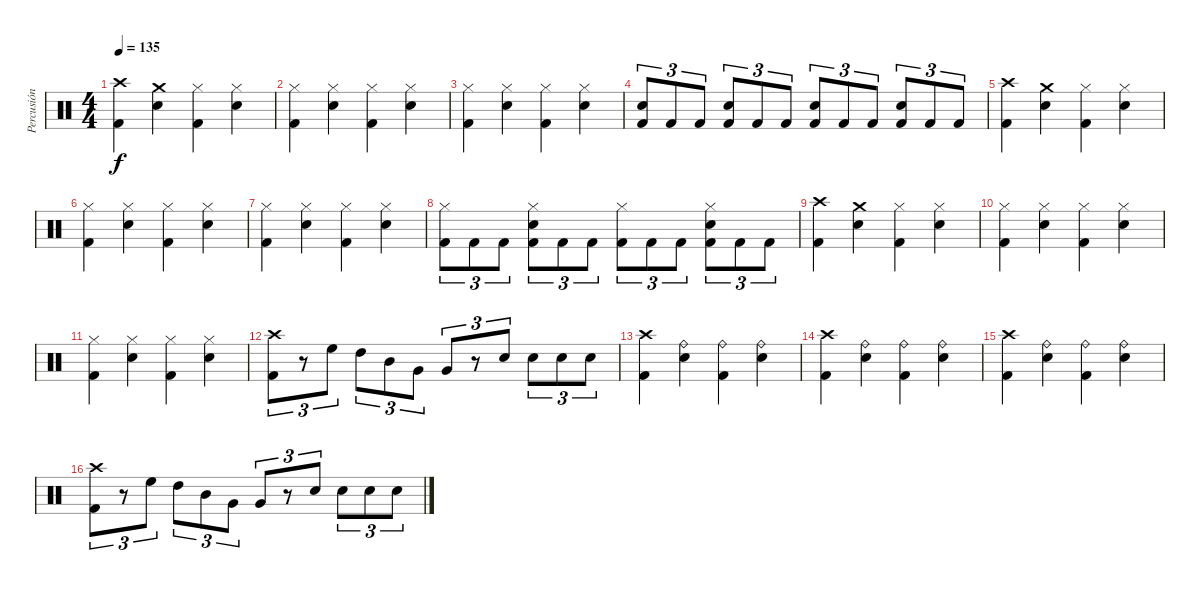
\track ("Percusión" "Percusión") {instrument percussion}
\staff {score}
\articulation defaults
\ts (4 4)
\tempo 135
\clef neutral
\ks c
("Crash high (hit)" "Kick (hit) 2").4{dy f} ("Crash medium (hit)" "Snare (hit) 2").4 ("Hi-Hat (closed)" "Kick (hit) 2").4 ("Hi-Hat (closed)" "Snare (hit) 2").4 |
("Hi-Hat (closed)" "Kick (hit) 2").4 ("Hi-Hat (closed)" "Snare (hit) 2").4 ("Hi-Hat (closed)" "Kick (hit) 2").4 ("Hi-Hat (closed)" "Snare (hit) 2").4 |
("Hi-Hat (closed)" "Kick (hit) 2").4 ("Hi-Hat (closed)" "Snare (hit) 2").4 ("Hi-Hat (closed)" "Kick (hit) 2").4 ("Hi-Hat (closed)" "Snare (hit) 2").4 |
("Snare (hit) 2" "Kick (hit) 2").8{tu (3 2)} "Kick (hit) 2".8{tu (3 2)} "Kick (hit) 2".8{tu (3 2)} ("Snare (hit) 2" "Kick (hit) 2").8{tu (3 2)} "Kick (hit) 2".8{tu (3 2)} "Kick (hit) 2".8{tu (3 2)} ("Snare (hit) 2" "Kick (hit) 2").8{tu (3 2)} "Kick (hit) 2".8{tu (3 2)} "Kick (hit) 2".8{tu (3 2)} ("Snare (hit) 2" "Kick (hit) 2").8{tu (3 2)} "Kick (hit) 2".8{tu (3 2)} "Kick (hit) 2".8{tu (3 2)} |
("Crash high (hit)" "Kick (hit) 2").4 ("Crash medium (hit)" "Snare (hit) 2").4 ("Hi-Hat (closed)" "Kick (hit) 2").4 ("Hi-Hat (closed)" "Snare (hit) 2").4 |
("Hi-Hat (closed)" "Kick (hit) 2").4 ("Hi-Hat (closed)" "Snare (hit) 2").4 ("Hi-Hat (closed)" "Kick (hit) 2").4 ("Hi-Hat (closed)" "Snare (hit) 2").4 |
("Hi-Hat (closed)" "Kick (hit) 2").4 ("Hi-Hat (closed)" "Snare (hit) 2").4 ("Hi-Hat (closed)" "Kick (hit) 2").4 ("Hi-Hat (closed)" "Snare (hit) 2").4 |
("Hi-Hat (closed)" "Kick (hit) 2").8{tu (3 2)} "Kick (hit) 2".8{tu (3 2)} "Kick (hit) 2".8{tu (3 2)} ("Hi-Hat (closed)" "Snare (hit) 2" "Kick (hit) 2").8{tu (3 2)} "Kick (hit) 2".8{tu (3 2)} "Kick (hit) 2".8{tu (3 2)} ("Hi-Hat (closed)" "Kick (hit) 2").8{tu (3 2)} "Kick (hit) 2".8{tu (3 2)} "Kick (hit) 2".8{tu (3 2)} ("Hi-Hat (closed)" "Snare (hit) 2" "Kick (hit) 2").8{tu (3 2)} "Kick (hit) 2".8{tu (3 2)} "Kick (hit) 2".8{tu (3 2)} |
("Crash high (hit)" "Kick (hit) 2").4 ("Crash medium (hit)" "Snare (hit) 2").4 ("Hi-Hat (closed)" "Kick (hit) 2").4 ("Hi-Hat (closed)" "Snare (hit) 2").4 |
("Hi-Hat (closed)" "Kick (hit) 2").4 ("Hi-Hat (closed)" "Snare (hit) 2").4 ("Hi-Hat (closed)" "Kick (hit) 2").4 ("Hi-Hat (closed)" "Snare (hit) 2").4 |
("Hi-Hat (closed)" "Kick (hit) 2").4 ("Hi-Hat (closed)" "Snare (hit) 2").4 ("Hi-Hat (closed)" "Kick (hit) 2").4 ("Hi-Hat (closed)" "Snare (hit) 2").4 |
("Crash high (hit)" "Kick (hit) 2").8{tu (3 2)} r.8{tu (3 2)} "High Floor Tom (hit)".8{tu (3 2)} "High Tom (hit)".8{tu (3 2)} "Mid Tom (hit)".8{tu (3 2)} "Very Low Tom (hit)".8{tu (3 2)} "Very Low Tom (hit)".8{tu (3 2)} r.8{tu (3 2)} "Snare (hit) 2".8{tu (3 2)} "Snare (hit) 2".8{tu (3 2)} "Snare (hit) 2".8{tu (3 2)} "Snare (hit) 2".8{tu (3 2)} |
("Crash high (hit)" "Kick (hit) 2").4 ("Ride (bell)" "Snare (hit) 2").4 ("Ride (bell)" "Kick (hit) 2").4 ("Ride (bell)" "Snare (hit) 2").4 |
("Crash high (hit)" "Kick (hit) 2").4 ("Ride (bell)" "Snare (hit) 2").4 ("Ride (bell)" "Kick (hit) 2").4 ("Ride (bell)" "Snare (hit) 2").4 |
("Crash high (hit)" "Kick (hit) 2").4 ("Ride (bell)" "Snare (hit) 2").4 ("Ride (bell)" "Kick (hit) 2").4 ("Ride (bell)" "Snare (hit) 2").4 |
("Crash high (hit)" "Kick (hit) 2").8{tu (3 2)} r.8{tu (3 2)} "High Floor Tom (hit)".8{tu (3 2)} "High Tom (hit)".8{tu (3 2)} "Mid Tom (hit)".8{tu (3 2)} "Very Low Tom (hit)".8{tu (3 2)} "Very Low Tom (hit)".8{tu (3 2)} r.8{tu (3 2)} "Snare (hit) 2".8{tu (3 2)} "Snare (hit) 2".8{tu (3 2)} "Snare (hit) 2".8{tu (3 2)} "Snare (hit) 2".8{tu (3 2)}
